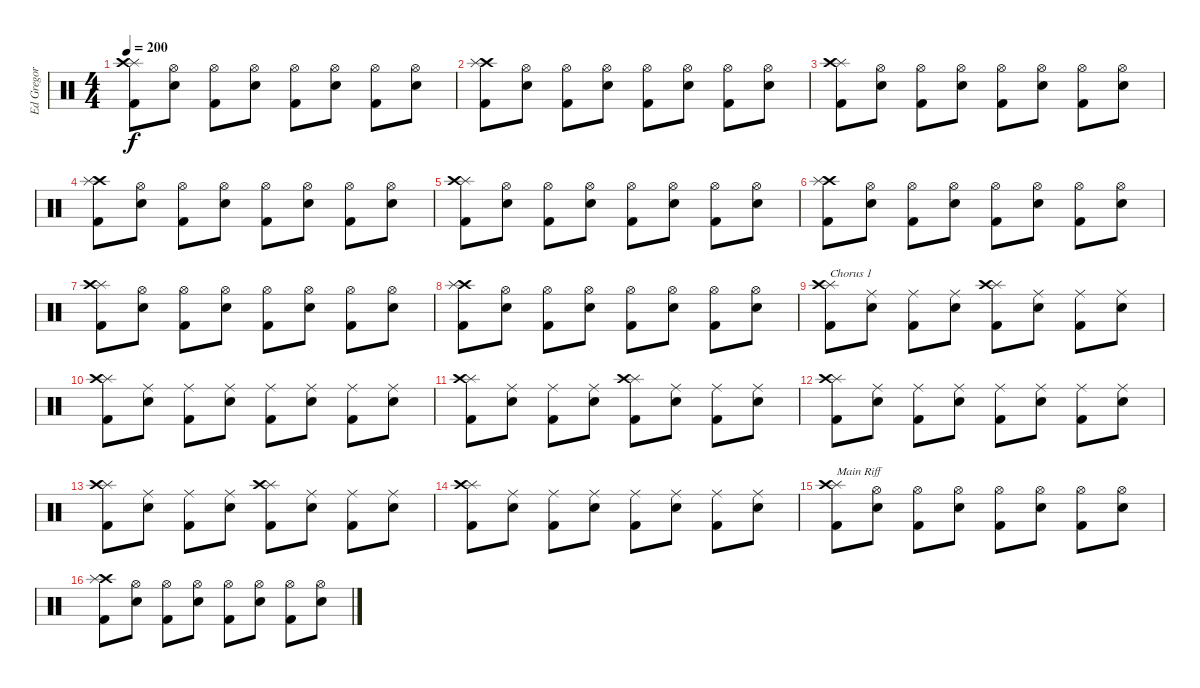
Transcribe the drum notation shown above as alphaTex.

\track ("Ed Gregor" "Ed Gregor") {instrument percussion}
\staff {score}
\articulation defaults
\ts (4 4)
\tempo 200
\clef neutral
\ks c
("Splash (hit)" "Crash high (hit)" "Kick (hit) 2").8{dy f} ("Hi-Hat (open)" "Snare (hit) 2").8 ("Hi-Hat (open)" "Kick (hit) 2").8 ("Hi-Hat (open)" "Snare (hit) 2").8 ("Hi-Hat (open)" "Kick (hit) 2").8 ("Hi-Hat (open)" "Snare (hit) 2").8 ("Hi-Hat (open)" "Kick (hit) 2").8 ("Hi-Hat (open)" "Snare (hit) 2").8 |
("Crash high (hit)" "Splash (hit)" "Kick (hit) 2").8 ("Hi-Hat (open)" "Snare (hit) 2").8 ("Hi-Hat (open)" "Kick (hit) 2").8 ("Hi-Hat (open)" "Snare (hit) 2").8 ("Hi-Hat (open)" "Kick (hit) 2").8 ("Hi-Hat (open)" "Snare (hit) 2").8 ("Hi-Hat (open)" "Kick (hit) 2").8 ("Hi-Hat (open)" "Snare (hit) 2").8 |
("Splash (hit)" "Crash high (hit)" "Kick (hit) 2").8 ("Hi-Hat (open)" "Snare (hit) 2").8 ("Hi-Hat (open)" "Kick (hit) 2").8 ("Hi-Hat (open)" "Snare (hit) 2").8 ("Hi-Hat (open)" "Kick (hit) 2").8 ("Hi-Hat (open)" "Snare (hit) 2").8 ("Hi-Hat (open)" "Kick (hit) 2").8 ("Hi-Hat (open)" "Snare (hit) 2").8 |
("Crash high (hit)" "Splash (hit)" "Kick (hit) 2").8 ("Hi-Hat (open)" "Snare (hit) 2").8 ("Hi-Hat (open)" "Kick (hit) 2").8 ("Hi-Hat (open)" "Snare (hit) 2").8 ("Hi-Hat (open)" "Kick (hit) 2").8 ("Hi-Hat (open)" "Snare (hit) 2").8 ("Hi-Hat (open)" "Kick (hit) 2").8 ("Hi-Hat (open)" "Snare (hit) 2").8 |
("Splash (hit)" "Crash high (hit)" "Kick (hit) 2").8 ("Hi-Hat (open)" "Snare (hit) 2").8 ("Hi-Hat (open)" "Kick (hit) 2").8 ("Hi-Hat (open)" "Snare (hit) 2").8 ("Hi-Hat (open)" "Kick (hit) 2").8 ("Hi-Hat (open)" "Snare (hit) 2").8 ("Hi-Hat (open)" "Kick (hit) 2").8 ("Hi-Hat (open)" "Snare (hit) 2").8 |
("Crash high (hit)" "Splash (hit)" "Kick (hit) 2").8 ("Hi-Hat (open)" "Snare (hit) 2").8 ("Hi-Hat (open)" "Kick (hit) 2").8 ("Hi-Hat (open)" "Snare (hit) 2").8 ("Hi-Hat (open)" "Kick (hit) 2").8 ("Hi-Hat (open)" "Snare (hit) 2").8 ("Hi-Hat (open)" "Kick (hit) 2").8 ("Hi-Hat (open)" "Snare (hit) 2").8 |
("Splash (hit)" "Crash high (hit)" "Kick (hit) 2").8 ("Hi-Hat (open)" "Snare (hit) 2").8 ("Hi-Hat (open)" "Kick (hit) 2").8 ("Hi-Hat (open)" "Snare (hit) 2").8 ("Hi-Hat (open)" "Kick (hit) 2").8 ("Hi-Hat (open)" "Snare (hit) 2").8 ("Hi-Hat (open)" "Kick (hit) 2").8 ("Hi-Hat (open)" "Snare (hit) 2").8 |
("Crash high (hit)" "Splash (hit)" "Kick (hit) 2").8 ("Hi-Hat (open)" "Snare (hit) 2").8 ("Hi-Hat (open)" "Kick (hit) 2").8 ("Hi-Hat (open)" "Snare (hit) 2").8 ("Hi-Hat (open)" "Kick (hit) 2").8 ("Hi-Hat (open)" "Snare (hit) 2").8 ("Hi-Hat (open)" "Kick (hit) 2").8 ("Hi-Hat (open)" "Snare (hit) 2").8 |
("Splash (hit)" "Crash high (hit)" "Kick (hit) 2").8{txt "Chorus 1"} ("Ride (middle)" "Snare (hit) 2").8 ("Ride (middle)" "Kick (hit) 2").8 ("Ride (middle)" "Snare (hit) 2").8 ("Splash (hit)" "Crash high (hit)" "Kick (hit) 2").8 ("Ride (middle)" "Snare (hit) 2").8 ("Ride (middle)" "Kick (hit) 2").8 ("Ride (middle)" "Snare (hit) 2").8 |
("Splash (hit)" "Crash high (hit)" "Kick (hit) 2").8 ("Ride (middle)" "Snare (hit) 2").8 ("Ride (middle)" "Kick (hit) 2").8 ("Ride (middle)" "Snare (hit) 2").8 ("Ride (middle)" "Kick (hit) 2").8 ("Ride (middle)" "Snare (hit) 2").8 ("Ride (middle)" "Kick (hit) 2").8 ("Ride (middle)" "Snare (hit) 2").8 |
("Splash (hit)" "Crash high (hit)" "Kick (hit) 2").8 ("Ride (middle)" "Snare (hit) 2").8 ("Ride (middle)" "Kick (hit) 2").8 ("Ride (middle)" "Snare (hit) 2").8 ("Splash (hit)" "Crash high (hit)" "Kick (hit) 2").8 ("Ride (middle)" "Snare (hit) 2").8 ("Ride (middle)" "Kick (hit) 2").8 ("Ride (middle)" "Snare (hit) 2").8 |
("Splash (hit)" "Crash high (hit)" "Kick (hit) 2").8 ("Ride (middle)" "Snare (hit) 2").8 ("Ride (middle)" "Kick (hit) 2").8 ("Ride (middle)" "Snare (hit) 2").8 ("Ride (middle)" "Kick (hit) 2").8 ("Ride (middle)" "Snare (hit) 2").8 ("Ride (middle)" "Kick (hit) 2").8 ("Ride (middle)" "Snare (hit) 2").8 |
("Splash (hit)" "Crash high (hit)" "Kick (hit) 2").8 ("Ride (middle)" "Snare (hit) 2").8 ("Ride (middle)" "Kick (hit) 2").8 ("Ride (middle)" "Snare (hit) 2").8 ("Splash (hit)" "Crash high (hit)" "Kick (hit) 2").8 ("Ride (middle)" "Snare (hit) 2").8 ("Ride (middle)" "Kick (hit) 2").8 ("Ride (middle)" "Snare (hit) 2").8 |
("Splash (hit)" "Crash high (hit)" "Kick (hit) 2").8 ("Ride (middle)" "Snare (hit) 2").8 ("Ride (middle)" "Kick (hit) 2").8 ("Ride (middle)" "Snare (hit) 2").8 ("Ride (middle)" "Kick (hit) 2").8 ("Ride (middle)" "Snare (hit) 2").8 ("Ride (middle)" "Kick (hit) 2").8 ("Ride (middle)" "Snare (hit) 2").8 |
("Splash (hit)" "Crash high (hit)" "Kick (hit) 2").8{txt "Main Riff"} ("Hi-Hat (open)" "Snare (hit) 2").8 ("Hi-Hat (open)" "Kick (hit) 2").8 ("Hi-Hat (open)" "Snare (hit) 2").8 ("Hi-Hat (open)" "Kick (hit) 2").8 ("Hi-Hat (open)" "Snare (hit) 2").8 ("Hi-Hat (open)" "Kick (hit) 2").8 ("Hi-Hat (open)" "Snare (hit) 2").8 |
("Crash high (hit)" "Splash (hit)" "Kick (hit) 2").8 ("Hi-Hat (open)" "Snare (hit) 2").8 ("Hi-Hat (open)" "Kick (hit) 2").8 ("Hi-Hat (open)" "Snare (hit) 2").8 ("Hi-Hat (open)" "Kick (hit) 2").8 ("Hi-Hat (open)" "Snare (hit) 2").8 ("Hi-Hat (open)" "Kick (hit) 2").8 ("Hi-Hat (open)" "Snare (hit) 2").8
